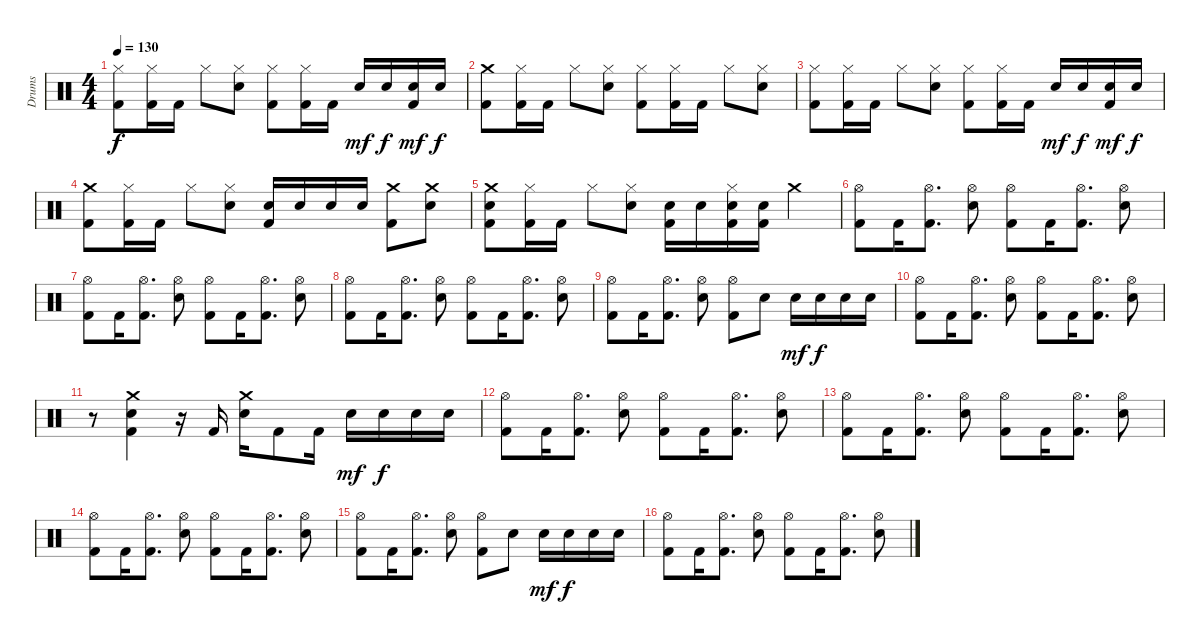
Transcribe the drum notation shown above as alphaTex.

\track ("Drums" "Drums") {instrument percussion}
\staff {score}
\articulation defaults
\ts (4 4)
\tempo 130
\clef neutral
\ks c
("Hi-Hat (closed)" "Kick (hit) 2").8{dy f} ("Hi-Hat (closed)" "Kick (hit) 2").16 "Kick (hit) 2".16 "Hi-Hat (closed)".8 ("Hi-Hat (closed)" "Electric Snare (hit)").8 ("Hi-Hat (closed)" "Kick (hit) 2").8 ("Hi-Hat (closed)" "Kick (hit) 2").16 "Kick (hit) 2".16 "Electric Snare (hit)".16{dy mf} "Electric Snare (hit)".16{dy f} ("Electric Snare (hit)" "Kick (hit) 2").16{dy mf} "Electric Snare (hit)".16{dy f} |
("Crash medium (hit)" "Kick (hit) 2").8 ("Hi-Hat (closed)" "Kick (hit) 2").16 "Kick (hit) 2".16 "Hi-Hat (closed)".8 ("Hi-Hat (closed)" "Electric Snare (hit)").8 ("Hi-Hat (closed)" "Kick (hit) 2").8 ("Hi-Hat (closed)" "Kick (hit) 2").16 "Kick (hit) 2".16 "Hi-Hat (closed)".8 ("Hi-Hat (closed)" "Electric Snare (hit)").8 |
("Hi-Hat (closed)" "Kick (hit) 2").8 ("Hi-Hat (closed)" "Kick (hit) 2").16 "Kick (hit) 2".16 "Hi-Hat (closed)".8 ("Hi-Hat (closed)" "Electric Snare (hit)").8 ("Hi-Hat (closed)" "Kick (hit) 2").8 ("Hi-Hat (closed)" "Kick (hit) 2").16 "Kick (hit) 2".16 "Electric Snare (hit)".16{dy mf} "Electric Snare (hit)".16{dy f} ("Electric Snare (hit)" "Kick (hit) 2").16{dy mf} "Electric Snare (hit)".16{dy f} |
("Crash medium (hit)" "Kick (hit) 2").8 ("Hi-Hat (closed)" "Kick (hit) 2").16 "Kick (hit) 2".16 "Hi-Hat (closed)".8 ("Hi-Hat (closed)" "Electric Snare (hit)").8 ("Electric Snare (hit)" "Kick (hit) 2").16 "Electric Snare (hit)".16 "Electric Snare (hit)".16 "Electric Snare (hit)".16 ("Crash medium (hit)" "Kick (hit) 2").8 ("Crash medium (hit)" "Electric Snare (hit)").8 |
("Crash medium (hit)" "Electric Snare (hit)" "Kick (hit) 2").8 ("Hi-Hat (closed)" "Kick (hit) 2").16 "Kick (hit) 2".16 "Hi-Hat (closed)".8 ("Hi-Hat (closed)" "Electric Snare (hit)").8 ("Electric Snare (hit)" "Kick (hit) 2").16 "Electric Snare (hit)".16 ("Hi-Hat (closed)" "Electric Snare (hit)" "Kick (hit) 2").16 ("Electric Snare (hit)" "Kick (hit) 2").16 "Crash medium (hit)".4 |
("Hi-Hat (open)" "Kick (hit) 2").8 "Kick (hit) 2".16 ("Hi-Hat (open)" "Kick (hit) 2").8{d} ("Hi-Hat (open)" "Electric Snare (hit)").8 ("Hi-Hat (open)" "Kick (hit) 2").8 "Kick (hit) 2".16 ("Hi-Hat (open)" "Kick (hit) 2").8{d} ("Hi-Hat (open)" "Electric Snare (hit)").8 |
("Hi-Hat (open)" "Kick (hit) 2").8 "Kick (hit) 2".16 ("Hi-Hat (open)" "Kick (hit) 2").8{d} ("Hi-Hat (open)" "Electric Snare (hit)").8 ("Hi-Hat (open)" "Kick (hit) 2").8 "Kick (hit) 2".16 ("Hi-Hat (open)" "Kick (hit) 2").8{d} ("Hi-Hat (open)" "Electric Snare (hit)").8 |
("Hi-Hat (open)" "Kick (hit) 2").8 "Kick (hit) 2".16 ("Hi-Hat (open)" "Kick (hit) 2").8{d} ("Hi-Hat (open)" "Electric Snare (hit)").8 ("Hi-Hat (open)" "Kick (hit) 2").8 "Kick (hit) 2".16 ("Hi-Hat (open)" "Kick (hit) 2").8{d} ("Hi-Hat (open)" "Electric Snare (hit)").8 |
("Hi-Hat (open)" "Kick (hit) 2").8 "Kick (hit) 2".16 ("Hi-Hat (open)" "Kick (hit) 2").8{d} ("Hi-Hat (open)" "Electric Snare (hit)").8 ("Hi-Hat (open)" "Kick (hit) 2").8 "Electric Snare (hit)".8 "Electric Snare (hit)".16{dy mf} "Electric Snare (hit)".16{dy f} "Electric Snare (hit)".16 "Electric Snare (hit)".16 |
("Hi-Hat (open)" "Kick (hit) 2").8 "Kick (hit) 2".16 ("Hi-Hat (open)" "Kick (hit) 2").8{d} ("Hi-Hat (open)" "Electric Snare (hit)").8 ("Hi-Hat (open)" "Kick (hit) 2").8 "Kick (hit) 2".16 ("Hi-Hat (open)" "Kick (hit) 2").8{d} ("Hi-Hat (open)" "Electric Snare (hit)").8 |
r.8 ("Crash medium (hit)" "Electric Snare (hit)" "Kick (hit) 2").4 r.16 "Kick (hit) 2".16 ("Crash medium (hit)" "Electric Snare (hit)").16 "Kick (hit) 2".8 "Kick (hit) 2".16 "Electric Snare (hit)".16{dy mf} "Electric Snare (hit)".16{dy f} "Electric Snare (hit)".16 "Electric Snare (hit)".16 |
("Hi-Hat (open)" "Kick (hit) 2").8 "Kick (hit) 2".16 ("Hi-Hat (open)" "Kick (hit) 2").8{d} ("Hi-Hat (open)" "Electric Snare (hit)").8 ("Hi-Hat (open)" "Kick (hit) 2").8 "Kick (hit) 2".16 ("Hi-Hat (open)" "Kick (hit) 2").8{d} ("Hi-Hat (open)" "Electric Snare (hit)").8 |
("Hi-Hat (open)" "Kick (hit) 2").8 "Kick (hit) 2".16 ("Hi-Hat (open)" "Kick (hit) 2").8{d} ("Hi-Hat (open)" "Electric Snare (hit)").8 ("Hi-Hat (open)" "Kick (hit) 2").8 "Kick (hit) 2".16 ("Hi-Hat (open)" "Kick (hit) 2").8{d} ("Hi-Hat (open)" "Electric Snare (hit)").8 |
("Hi-Hat (open)" "Kick (hit) 2").8 "Kick (hit) 2".16 ("Hi-Hat (open)" "Kick (hit) 2").8{d} ("Hi-Hat (open)" "Electric Snare (hit)").8 ("Hi-Hat (open)" "Kick (hit) 2").8 "Kick (hit) 2".16 ("Hi-Hat (open)" "Kick (hit) 2").8{d} ("Hi-Hat (open)" "Electric Snare (hit)").8 |
("Hi-Hat (open)" "Kick (hit) 2").8 "Kick (hit) 2".16 ("Hi-Hat (open)" "Kick (hit) 2").8{d} ("Hi-Hat (open)" "Electric Snare (hit)").8 ("Hi-Hat (open)" "Kick (hit) 2").8 "Electric Snare (hit)".8 "Electric Snare (hit)".16{dy mf} "Electric Snare (hit)".16{dy f} "Electric Snare (hit)".16 "Electric Snare (hit)".16 |
("Hi-Hat (open)" "Kick (hit) 2").8 "Kick (hit) 2".16 ("Hi-Hat (open)" "Kick (hit) 2").8{d} ("Hi-Hat (open)" "Electric Snare (hit)").8 ("Hi-Hat (open)" "Kick (hit) 2").8 "Kick (hit) 2".16 ("Hi-Hat (open)" "Kick (hit) 2").8{d} ("Hi-Hat (open)" "Electric Snare (hit)").8
